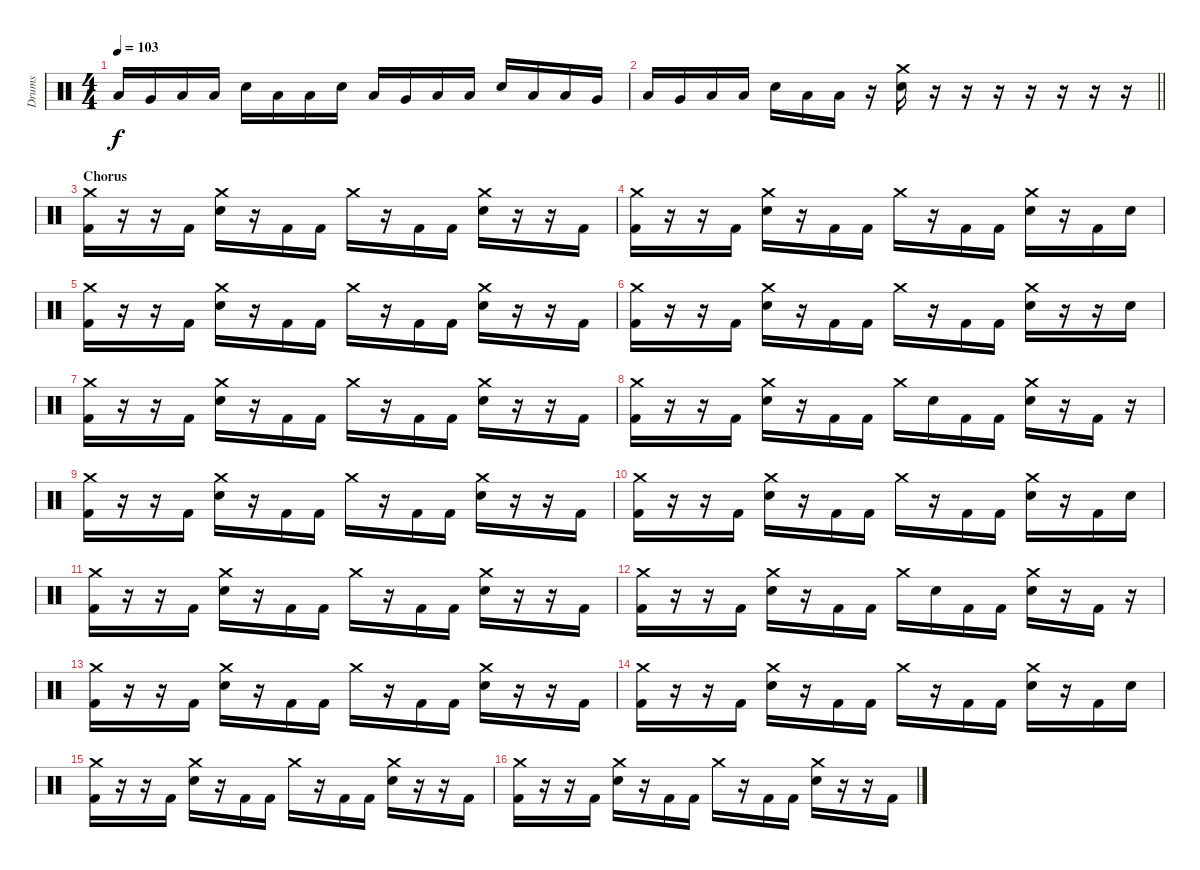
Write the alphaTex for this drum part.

\track ("Drums" "Drums") {instrument percussion}
\staff {score}
\articulation defaults
\ts (4 4)
\tempo 103
\clef neutral
\ks c "Low Tom (hit)".16{dy f} "Very Low Tom (hit)".16 "Low Floor Tom (hit)".16 "Low Floor Tom (hit)".16 "Electric Snare (hit)".16 "Low Floor Tom (hit)".16 "Low Floor Tom (hit)".16 "Electric Snare (hit)".16 "Low Tom (hit)".16 "Very Low Tom (hit)".16 "Low Floor Tom (hit)".16 "Low Floor Tom (hit)".16 "Electric Snare (hit)".16 "Low Floor Tom (hit)".16 "Low Floor Tom (hit)".16 "Very Low Tom (hit)".16
|
\barLineRight lightlight "Low Tom (hit)".16 "Very Low Tom (hit)".16 "Low Floor Tom (hit)".16 "Low Floor Tom (hit)".16 "Electric Snare (hit)".16 "Low Floor Tom (hit)".16 "Low Floor Tom (hit)".16
r.16 ("Crash medium (hit)" "Electric Snare (hit)").16 r.16 r.16 r.16 r.16 r.16 r.16 r.16 |
\section ("" "Chorus")
("Crash medium (hit)" "Kick (hit) 2").16 r.16 r.16 "Kick (hit) 2".16 ("Crash medium (hit)" "Electric Snare (hit)").16 r.16 "Kick (hit) 2".16 "Kick (hit) 2".16 "Crash medium (hit)".16 r.16 "Kick (hit) 2".16 "Kick (hit) 2".16 ("Crash medium (hit)" "Electric Snare (hit)").16 r.16 r.16 "Kick (hit) 2".16 |
("Crash medium (hit)" "Kick (hit) 2").16 r.16 r.16 "Kick (hit) 2".16 ("Crash medium (hit)" "Electric Snare (hit)").16 r.16 "Kick (hit) 2".16 "Kick (hit) 2".16 "Crash medium (hit)".16 r.16 "Kick (hit) 2".16 "Kick (hit) 2".16 ("Crash medium (hit)" "Electric Snare (hit)").16 r.16 "Kick (hit) 2".16 "Electric Snare (hit)".16 |
("Crash medium (hit)" "Kick (hit) 2").16 r.16 r.16 "Kick (hit) 2".16 ("Crash medium (hit)" "Electric Snare (hit)").16 r.16 "Kick (hit) 2".16 "Kick (hit) 2".16 "Crash medium (hit)".16 r.16 "Kick (hit) 2".16 "Kick (hit) 2".16 ("Crash medium (hit)" "Electric Snare (hit)").16 r.16 r.16 "Kick (hit) 2".16 |
("Crash medium (hit)" "Kick (hit) 2").16 r.16 r.16 "Kick (hit) 2".16 ("Crash medium (hit)" "Electric Snare (hit)").16 r.16 "Kick (hit) 2".16 "Kick (hit) 2".16 "Crash medium (hit)".16 r.16 "Kick (hit) 2".16 "Kick (hit) 2".16 ("Crash medium (hit)" "Electric Snare (hit)").16 r.16 r.16 "Electric Snare (hit)".16 |
("Crash medium (hit)" "Kick (hit) 2").16 r.16 r.16 "Kick (hit) 2".16 ("Crash medium (hit)" "Electric Snare (hit)").16 r.16 "Kick (hit) 2".16 "Kick (hit) 2".16 "Crash medium (hit)".16 r.16 "Kick (hit) 2".16 "Kick (hit) 2".16 ("Crash medium (hit)" "Electric Snare (hit)").16 r.16 r.16 "Kick (hit) 2".16 |
("Crash medium (hit)" "Kick (hit) 2").16 r.16 r.16 "Kick (hit) 2".16 ("Crash medium (hit)" "Electric Snare (hit)").16 r.16 "Kick (hit) 2".16 "Kick (hit) 2".16 "Crash medium (hit)".16 "Electric Snare (hit)".16 "Kick (hit) 2".16 "Kick (hit) 2".16 ("Crash medium (hit)" "Electric Snare (hit)").16 r.16 "Kick (hit) 2".16 r.16 |
("Crash medium (hit)" "Kick (hit) 2").16 r.16 r.16 "Kick (hit) 2".16 ("Crash medium (hit)" "Electric Snare (hit)").16 r.16 "Kick (hit) 2".16 "Kick (hit) 2".16 "Crash medium (hit)".16 r.16 "Kick (hit) 2".16 "Kick (hit) 2".16 ("Crash medium (hit)" "Electric Snare (hit)").16 r.16 r.16 "Kick (hit) 2".16 |
("Crash medium (hit)" "Kick (hit) 2").16 r.16 r.16 "Kick (hit) 2".16 ("Crash medium (hit)" "Electric Snare (hit)").16 r.16 "Kick (hit) 2".16 "Kick (hit) 2".16 "Crash medium (hit)".16 r.16 "Kick (hit) 2".16 "Kick (hit) 2".16 ("Crash medium (hit)" "Electric Snare (hit)").16 r.16 "Kick (hit) 2".16 "Electric Snare (hit)".16 |
("Crash medium (hit)" "Kick (hit) 2").16 r.16 r.16 "Kick (hit) 2".16 ("Crash medium (hit)" "Electric Snare (hit)").16 r.16 "Kick (hit) 2".16 "Kick (hit) 2".16 "Crash medium (hit)".16 r.16 "Kick (hit) 2".16 "Kick (hit) 2".16 ("Crash medium (hit)" "Electric Snare (hit)").16 r.16 r.16 "Kick (hit) 2".16 |
("Crash medium (hit)" "Kick (hit) 2").16 r.16 r.16 "Kick (hit) 2".16 ("Crash medium (hit)" "Electric Snare (hit)").16 r.16 "Kick (hit) 2".16 "Kick (hit) 2".16 "Crash medium (hit)".16 "Electric Snare (hit)".16 "Kick (hit) 2".16 "Kick (hit) 2".16 ("Crash medium (hit)" "Electric Snare (hit)").16 r.16 "Kick (hit) 2".16 r.16 |
("Crash medium (hit)" "Kick (hit) 2").16 r.16 r.16 "Kick (hit) 2".16 ("Crash medium (hit)" "Electric Snare (hit)").16 r.16 "Kick (hit) 2".16 "Kick (hit) 2".16 "Crash medium (hit)".16 r.16 "Kick (hit) 2".16 "Kick (hit) 2".16 ("Crash medium (hit)" "Electric Snare (hit)").16 r.16 r.16 "Kick (hit) 2".16 |
("Crash medium (hit)" "Kick (hit) 2").16 r.16 r.16 "Kick (hit) 2".16 ("Crash medium (hit)" "Electric Snare (hit)").16 r.16 "Kick (hit) 2".16 "Kick (hit) 2".16 "Crash medium (hit)".16 r.16 "Kick (hit) 2".16 "Kick (hit) 2".16 ("Crash medium (hit)" "Electric Snare (hit)").16 r.16 "Kick (hit) 2".16 "Electric Snare (hit)".16 |
("Crash medium (hit)" "Kick (hit) 2").16 r.16 r.16 "Kick (hit) 2".16 ("Crash medium (hit)" "Electric Snare (hit)").16 r.16 "Kick (hit) 2".16 "Kick (hit) 2".16 "Crash medium (hit)".16 r.16 "Kick (hit) 2".16 "Kick (hit) 2".16 ("Crash medium (hit)" "Electric Snare (hit)").16 r.16 r.16 "Kick (hit) 2".16 |
("Crash medium (hit)" "Kick (hit) 2").16 r.16 r.16 "Kick (hit) 2".16 ("Crash medium (hit)" "Electric Snare (hit)").16 r.16 "Kick (hit) 2".16 "Kick (hit) 2".16 "Crash medium (hit)".16 r.16 "Kick (hit) 2".16 "Kick (hit) 2".16 ("Crash medium (hit)" "Electric Snare (hit)").16 r.16 r.16 "Kick (hit) 2".16
